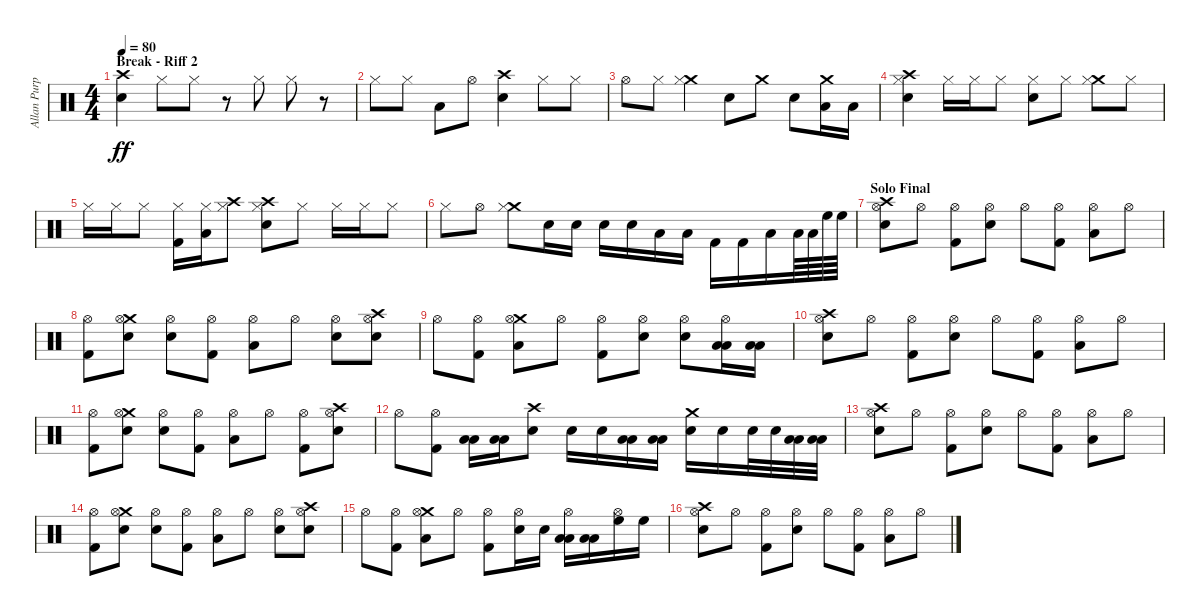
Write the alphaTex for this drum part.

\track ("Allan Purple" "Allan Purp") {instrument percussion}
\staff {score}
\articulation defaults
\ts (4 4)
\section ("" "Break - Riff 2")
\tempo 80
\clef neutral
\ks c
("Crash high (hit)" "Snare (hit) 2").4{dy ff} "Hi-Hat (closed)".8 "Hi-Hat (closed)".8 r.8 "Hi-Hat (closed)".8 "Hi-Hat (closed)".8 r.8 |
"Hi-Hat (closed)".8 "Hi-Hat (closed)".8 "Low Tom (hit)".8 "Hi-Hat (open)".8 ("Crash high (hit)" "Snare (hit) 2").4 "Hi-Hat (closed)".8 "Hi-Hat (closed)".8 |
"Hi-Hat (open)".8 "Hi-Hat (closed)".8 ("Crash medium (hit)" "Hi-Hat (closed)").4 "Electric Snare (hit)".8 "Crash medium (hit)".8 "Electric Snare (hit)".8 ("Crash medium (hit)" "Low Tom (hit)").16 "Low Tom (hit)".16 |
("Crash high (hit)" "Hi-Hat (closed)" "Snare (hit) 2").4 "Hi-Hat (closed)".16 "Hi-Hat (closed)".16 "Hi-Hat (closed)".8 ("Hi-Hat (closed)" "Electric Snare (hit)").8 "Hi-Hat (closed)".8 ("Crash medium (hit)" "Hi-Hat (closed)").8 "Hi-Hat (closed)".8 |
"Hi-Hat (closed)".16 "Hi-Hat (closed)".16 "Hi-Hat (closed)".8 ("Hi-Hat (closed)" "Kick (hit) 2").16 ("Hi-Hat (closed)" "Low Tom (hit)").16 ("Crash high (hit)" "Hi-Hat (closed)").8 ("Crash high (hit)" "Hi-Hat (closed)" "Snare (hit) 2").8 "Hi-Hat (closed)".8 "Hi-Hat (closed)".16 "Hi-Hat (closed)".16 "Hi-Hat (closed)".8 |
"Hi-Hat (closed)".8 "Hi-Hat (open)".8 ("Crash medium (hit)" "Hi-Hat (closed)").8 "Electric Snare (hit)".16 "Electric Snare (hit)".16 "Snare (hit) 2".16 "Snare (hit) 2".16 "Low Tom (hit)".16 "Low Tom (hit)".16 "Kick (hit) 2".16 "Kick (hit) 2".16 "Low Floor Tom (hit)".16 "Low Floor Tom (hit)".64 "Low Floor Tom (hit)".64 "High Floor Tom (hit)".64 "High Floor Tom (hit)".64 |
\section ("" "Solo Final")
("Crash high (hit)" "Hi-Hat (open)" "Snare (hit) 2").8 "Hi-Hat (open)".8 ("Hi-Hat (open)" "Kick (hit) 2").8 ("Hi-Hat (open)" "Snare (hit) 2").8 "Hi-Hat (open)".8 ("Hi-Hat (open)" "Kick (hit) 2").8 ("Hi-Hat (open)" "Low Tom (hit)").8 "Hi-Hat (open)".8 |
("Hi-Hat (open)" "Kick (hit) 2").8 ("Crash medium (hit)" "Hi-Hat (open)" "Snare (hit) 2").8 ("Hi-Hat (open)" "Electric Snare (hit)").8 ("Hi-Hat (open)" "Kick (hit) 2").8 ("Hi-Hat (open)" "Low Tom (hit)").8 "Hi-Hat (open)".8 ("Hi-Hat (open)" "Snare (hit) 2").8 ("Crash high (hit)" "Hi-Hat (open)" "Snare (hit) 2").8 |
"Hi-Hat (open)".8 ("Hi-Hat (open)" "Kick (hit) 2").8 ("Crash medium (hit)" "Hi-Hat (open)" "Low Tom (hit)").8 "Hi-Hat (open)".8 ("Hi-Hat (open)" "Kick (hit) 2").8 ("Hi-Hat (open)" "Snare (hit) 2").8 ("Hi-Hat (open)" "Electric Snare (hit)").8 ("Hi-Hat (open)" "Low Tom (hit)" "Low Tom (hit)").16 ("Low Tom (hit)" "Low Tom (hit)").16 |
("Crash high (hit)" "Hi-Hat (open)" "Snare (hit) 2").8 "Hi-Hat (open)".8 ("Hi-Hat (open)" "Kick (hit) 2").8 ("Hi-Hat (open)" "Snare (hit) 2").8 "Hi-Hat (open)".8 ("Hi-Hat (open)" "Kick (hit) 2").8 ("Hi-Hat (open)" "Low Tom (hit)").8 "Hi-Hat (open)".8 |
("Hi-Hat (open)" "Kick (hit) 2").8 ("Crash medium (hit)" "Hi-Hat (open)" "Snare (hit) 2").8 ("Hi-Hat (open)" "Electric Snare (hit)").8 ("Hi-Hat (open)" "Kick (hit) 2").8 ("Hi-Hat (open)" "Low Tom (hit)").8 "Hi-Hat (open)".8 ("Hi-Hat (open)" "Kick (hit) 2").8 ("Crash high (hit)" "Hi-Hat (open)" "Snare (hit) 2").8 |
"Hi-Hat (open)".8 ("Hi-Hat (open)" "Kick (hit) 2").8 ("Low Tom (hit)" "Low Tom (hit)").16 ("Low Tom (hit)" "Low Tom (hit)").16 ("Crash high (hit)" "Electric Snare (hit)").8 "Electric Snare (hit)".16 "Electric Snare (hit)".16 ("Low Tom (hit)" "Low Tom (hit)").16 ("Low Tom (hit)" "Low Tom (hit)").16 ("Crash medium (hit)" "Snare (hit) 2").16 "Snare (hit) 2".16 "Electric Snare (hit)".32 "Electric Snare (hit)".32 ("Low Tom (hit)" "Low Tom (hit)").32 ("Low Tom (hit)" "Low Tom (hit)").32 |
("Crash high (hit)" "Hi-Hat (open)" "Snare (hit) 2").8 "Hi-Hat (open)".8 ("Hi-Hat (open)" "Kick (hit) 2").8 ("Hi-Hat (open)" "Snare (hit) 2").8 "Hi-Hat (open)".8 ("Hi-Hat (open)" "Kick (hit) 2").8 ("Hi-Hat (open)" "Low Tom (hit)").8 "Hi-Hat (open)".8 |
("Hi-Hat (open)" "Kick (hit) 2").8 ("Crash medium (hit)" "Hi-Hat (open)" "Snare (hit) 2").8 ("Hi-Hat (open)" "Electric Snare (hit)").8 ("Hi-Hat (open)" "Kick (hit) 2").8 ("Hi-Hat (open)" "Low Tom (hit)").8 "Hi-Hat (open)".8 ("Hi-Hat (open)" "Snare (hit) 2").8 ("Crash high (hit)" "Hi-Hat (open)" "Snare (hit) 2").8 |
"Hi-Hat (open)".8 ("Hi-Hat (open)" "Kick (hit) 2").8 ("Crash medium (hit)" "Hi-Hat (open)" "Low Tom (hit)").8 "Hi-Hat (open)".8 ("Hi-Hat (open)" "Kick (hit) 2").8 ("Hi-Hat (open)" "Snare (hit) 2").16 "Electric Snare (hit)".16 ("Hi-Hat (open)" "Low Tom (hit)" "Low Tom (hit)").16 ("Low Tom (hit)" "Low Tom (hit)").16 ("Hi-Hat (open)" "High Floor Tom (hit)").16 "High Floor Tom (hit)".16 |
("Crash high (hit)" "Hi-Hat (open)" "Snare (hit) 2").8 "Hi-Hat (open)".8 ("Hi-Hat (open)" "Kick (hit) 2").8 ("Hi-Hat (open)" "Snare (hit) 2").8 "Hi-Hat (open)".8 ("Hi-Hat (open)" "Kick (hit) 2").8 ("Hi-Hat (open)" "Low Tom (hit)").8 "Hi-Hat (open)".8
